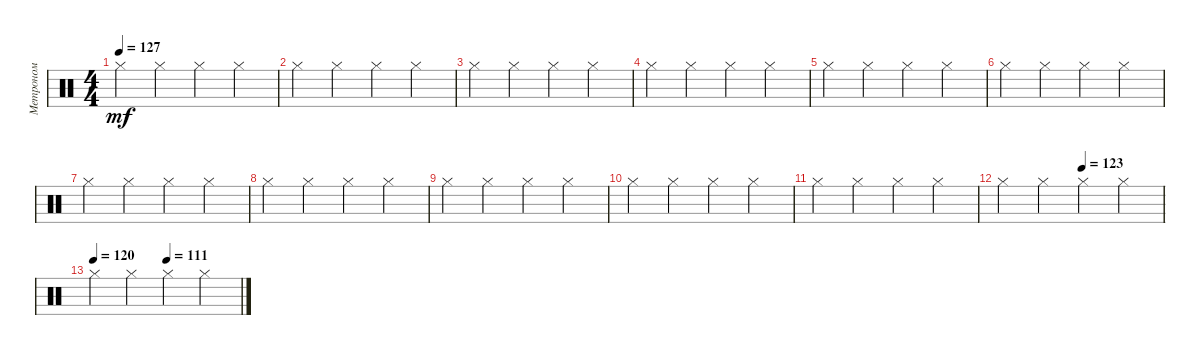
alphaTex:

\track ("Метроном" "Метроном") {instrument percussion}
\staff {score}
\articulation defaults
\ts (4 4)
\tempo 127
\clef neutral
\ks c "Hi-Hat (closed)".4{dy mf} "Hi-Hat (closed)".4 "Hi-Hat (closed)".4 "Hi-Hat (closed)".4
|
"Hi-Hat (closed)".4 "Hi-Hat (closed)".4 "Hi-Hat (closed)".4 "Hi-Hat (closed)".4 |
"Hi-Hat (closed)".4 "Hi-Hat (closed)".4 "Hi-Hat (closed)".4 "Hi-Hat (closed)".4 |
"Hi-Hat (closed)".4 "Hi-Hat (closed)".4 "Hi-Hat (closed)".4 "Hi-Hat (closed)".4 |
"Hi-Hat (closed)".4 "Hi-Hat (closed)".4 "Hi-Hat (closed)".4 "Hi-Hat (closed)".4 |
"Hi-Hat (closed)".4 "Hi-Hat (closed)".4 "Hi-Hat (closed)".4 "Hi-Hat (closed)".4 |
"Hi-Hat (closed)".4 "Hi-Hat (closed)".4 "Hi-Hat (closed)".4 "Hi-Hat (closed)".4 |
"Hi-Hat (closed)".4 "Hi-Hat (closed)".4 "Hi-Hat (closed)".4 "Hi-Hat (closed)".4 |
"Hi-Hat (closed)".4 "Hi-Hat (closed)".4 "Hi-Hat (closed)".4 "Hi-Hat (closed)".4 |
"Hi-Hat (closed)".4 "Hi-Hat (closed)".4 "Hi-Hat (closed)".4 "Hi-Hat (closed)".4 |
"Hi-Hat (closed)".4 "Hi-Hat (closed)".4 "Hi-Hat (closed)".4 "Hi-Hat (closed)".4 |
\tempo (123 0.5)
"Hi-Hat (closed)".4 "Hi-Hat (closed)".4 "Hi-Hat (closed)".4 "Hi-Hat (closed)".4 |
\tempo 120
\tempo (111 0.5)
"Hi-Hat (closed)".4 "Hi-Hat (closed)".4 "Hi-Hat (closed)".4 "Hi-Hat (closed)".4
